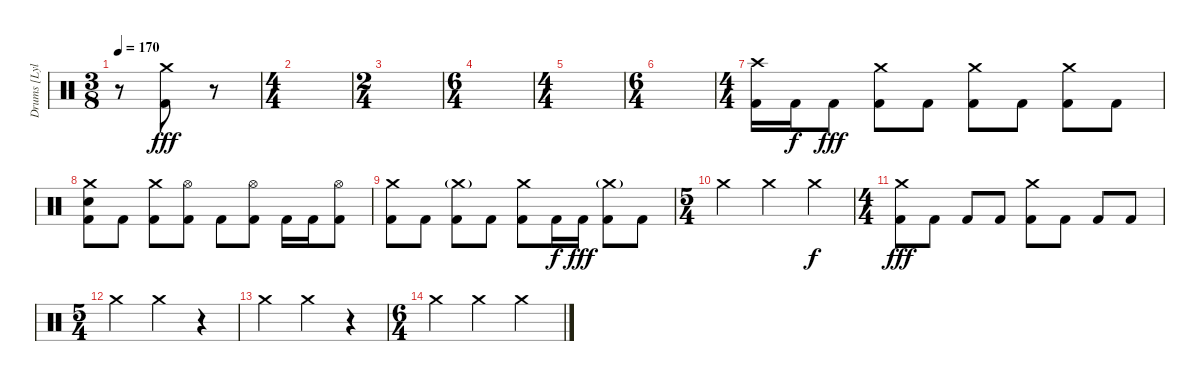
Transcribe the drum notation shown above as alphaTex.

\track ("Drums [Lyle Cooper]" "Drums [Lyl") {instrument percussion}
\staff {score}
\articulation defaults
\ts (3 8)
\tempo 170
\clef neutral
\ks c
r.8{dy fff} ("Crash medium (hit)" "Kick (hit) 2").8 r.8 |
\ts (4 4)
|
\ts (2 4)
|
\ts (6 4)
|
\ts (4 4)
|
\ts (6 4)
|
\ts (4 4)
("Crash high (hit)" "Kick (hit) 2").16 "Kick (hit) 2".16{dy f} "Kick (hit) 2".8{dy fff} ("Crash medium (hit)" "Kick (hit) 2").8 "Kick (hit) 2".8 ("Crash medium (hit)" "Kick (hit) 2").8 "Kick (hit) 2".8 ("Crash medium (hit)" "Kick (hit) 2").8 "Kick (hit) 2".8 |
("Crash medium (hit)" "Electric Snare (hit)" "Kick (hit) 2").8 "Kick (hit) 2".8 ("Crash medium (hit)" "Kick (hit) 2").8 ("Hi-Hat (open)" "Kick (hit) 2").8 "Kick (hit) 2".8 ("Hi-Hat (open)" "Kick (hit) 2").8 "Kick (hit) 2".16 "Kick (hit) 2".16 ("Hi-Hat (open)" "Kick (hit) 2").8 |
("Crash medium (hit)" "Kick (hit) 2").8 "Kick (hit) 2".8 ("Crash medium (hit)"{g} "Kick (hit) 2").8 "Kick (hit) 2".8 ("Crash medium (hit)" "Kick (hit) 2").8 "Kick (hit) 2".16{dy f} "Kick (hit) 2".16{dy fff} ("Crash medium (hit)"{g} "Kick (hit) 2").8 "Kick (hit) 2".8 |
\ts (5 4)
"Crash medium (hit)".2 "Crash medium (hit)".2 "Crash medium (hit)".4{dy f} |
\ts (4 4)
("Crash medium (hit)" "Kick (hit) 2").8{dy fff} "Kick (hit) 2".8 "Kick (hit) 2".8 "Kick (hit) 2".8 ("Crash medium (hit)" "Kick (hit) 2").8 "Kick (hit) 2".8 "Kick (hit) 2".8 "Kick (hit) 2".8 |
\ts (5 4)
"Crash medium (hit)".2 "Crash medium (hit)".2 r.4 |
"Crash medium (hit)".2 "Crash medium (hit)".2 r.4 |
\ts (6 4)
"Crash medium (hit)".2 "Crash medium (hit)".2 "Crash medium (hit)".2
